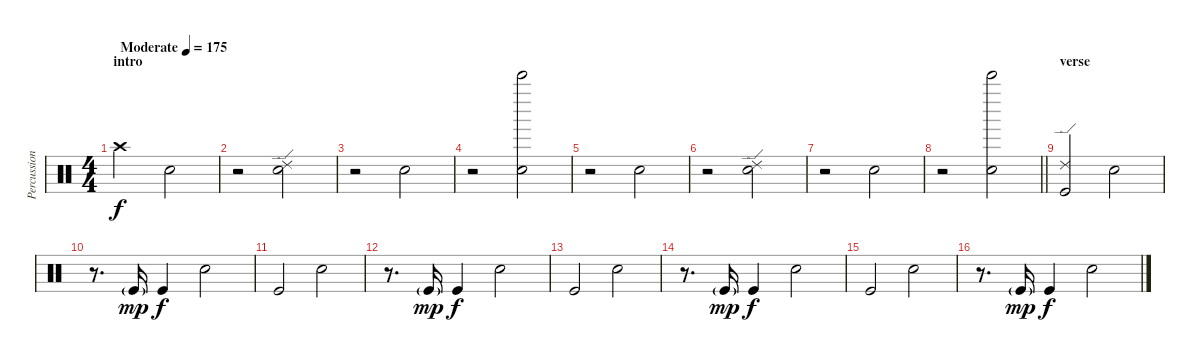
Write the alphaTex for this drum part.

\track ("Percussion" "Percussion") {instrument percussion}
\staff {score}
\articulation defaults
\ts (4 4)
\section ("" "intro")
\tempo (175 "Moderate")
\clef neutral
\ks c "Crash high (hit)".2{dy f} "Hand Clap (hit)".2
|
r.2 ("Ride (edge) 2" "Hand Clap (hit)").2 |
r.2 "Hand Clap (hit)".2 |
r.2 ("Bell Tree (hit)" "Hand Clap (hit)").2 |
r.2 "Hand Clap (hit)".2 |
r.2 ("Ride (edge) 2" "Hand Clap (hit)").2 |
r.2 "Hand Clap (hit)".2 |
\barLineRight lightlight
r.2 ("Bell Tree (hit)" "Hand Clap (hit)").2 |
\section ("" "verse")
("Ride (edge) 2" "Kick (hit)").2 "Hand Clap (hit)".2 |
r.8{d} "Kick (hit)"{g}.16{dy mp} "Kick (hit)".4{dy f} "Hand Clap (hit)".2 |
"Kick (hit)".2 "Hand Clap (hit)".2 |
r.8{d} "Kick (hit)"{g}.16{dy mp} "Kick (hit)".4{dy f} "Hand Clap (hit)".2 |
"Kick (hit)".2 "Hand Clap (hit)".2 |
r.8{d} "Kick (hit)"{g}.16{dy mp} "Kick (hit)".4{dy f} "Hand Clap (hit)".2 |
"Kick (hit)".2 "Hand Clap (hit)".2 |
r.8{d} "Kick (hit)"{g}.16{dy mp} "Kick (hit)".4{dy f} "Hand Clap (hit)".2
